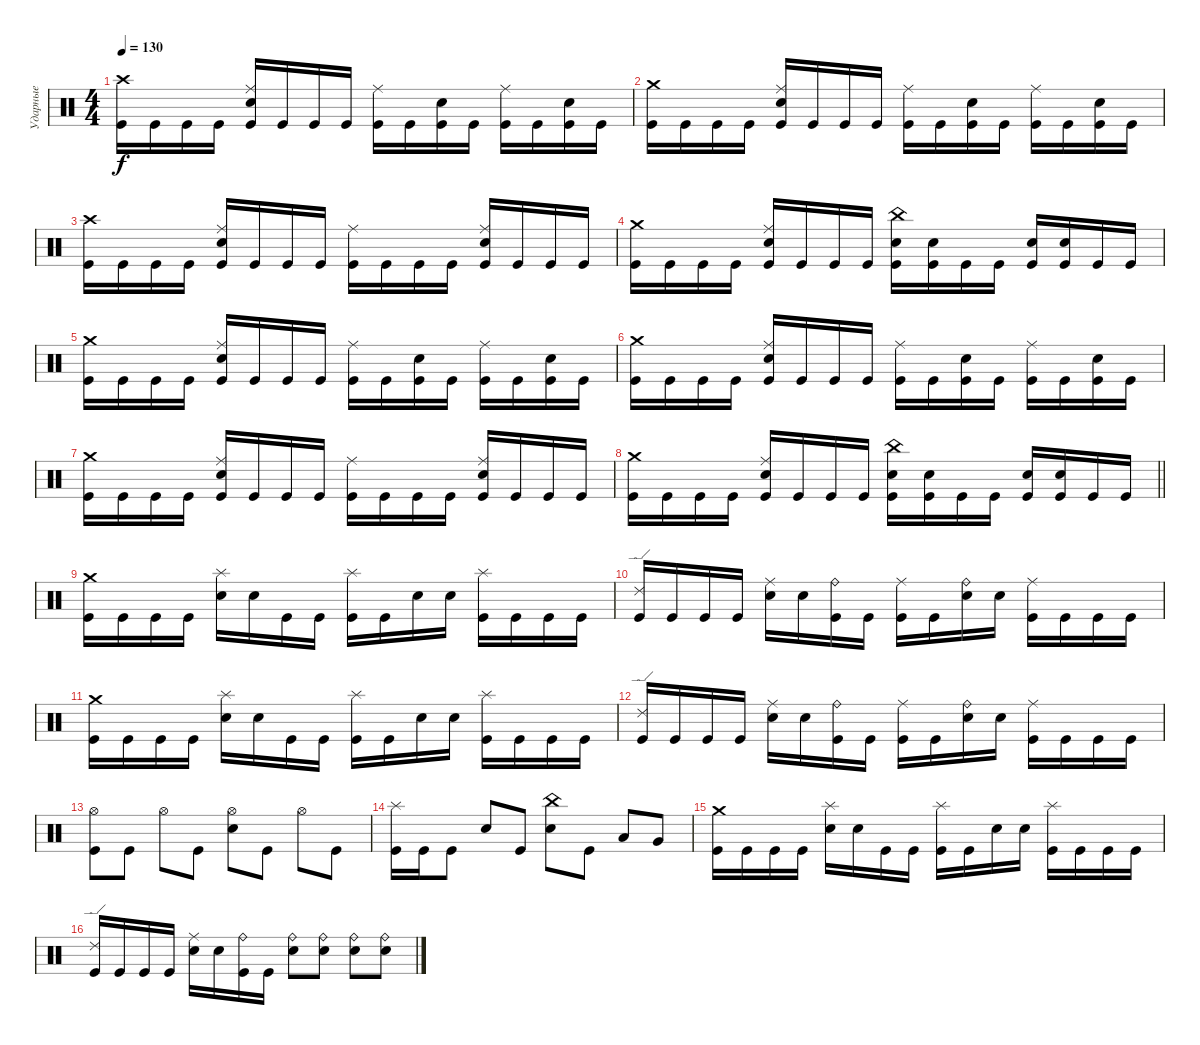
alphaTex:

\track ("Ударные" "Ударные") {instrument percussion}
\staff {score}
\articulation defaults
\ts (4 4)
\tempo 130
\clef neutral
\ks c
("Crash high (hit)" "Kick (hit)").16{dy f} "Kick (hit)".16 "Kick (hit)".16 "Kick (hit)".16 ("Ride (middle)" "Electric Snare (hit)" "Kick (hit)").16 "Kick (hit)".16 "Kick (hit)".16 "Kick (hit)".16 ("Ride (middle)" "Kick (hit)").16 "Kick (hit)".16 ("Electric Snare (hit)" "Kick (hit)").16 "Kick (hit)".16 ("Ride (middle)" "Kick (hit)").16 "Kick (hit)".16 ("Electric Snare (hit)" "Kick (hit)").16 "Kick (hit)".16 |
("Crash medium (hit)" "Kick (hit)").16 "Kick (hit)".16 "Kick (hit)".16 "Kick (hit)".16 ("Ride (middle)" "Electric Snare (hit)" "Kick (hit)").16 "Kick (hit)".16 "Kick (hit)".16 "Kick (hit)".16 ("Ride (middle)" "Kick (hit)").16 "Kick (hit)".16 ("Electric Snare (hit)" "Kick (hit)").16 "Kick (hit)".16 ("Ride (middle)" "Kick (hit)").16 "Kick (hit)".16 ("Electric Snare (hit)" "Kick (hit)").16 "Kick (hit)".16 |
("Crash high (hit)" "Kick (hit)").16 "Kick (hit)".16 "Kick (hit)".16 "Kick (hit)".16 ("Ride (middle)" "Electric Snare (hit)" "Kick (hit)").16 "Kick (hit)".16 "Kick (hit)".16 "Kick (hit)".16 ("Ride (middle)" "Kick (hit)").16 "Kick (hit)".16 "Kick (hit)".16 "Kick (hit)".16 ("Ride (middle)" "Electric Snare (hit)" "Kick (hit)").16 "Kick (hit)".16 "Kick (hit)".16 "Kick (hit)".16 |
("Crash medium (hit)" "Kick (hit)").16 "Kick (hit)".16 "Kick (hit)".16 "Kick (hit)".16 ("Ride (middle)" "Electric Snare (hit)" "Kick (hit)").16 "Kick (hit)".16 "Kick (hit)".16 "Kick (hit)".16 ("China (hit)" "Electric Snare (hit)" "Kick (hit)").16 ("Electric Snare (hit)" "Kick (hit)").16 "Kick (hit)".16 "Kick (hit)".16 ("Electric Snare (hit)" "Kick (hit)").16 ("Electric Snare (hit)" "Kick (hit)").16 "Kick (hit)".16 "Kick (hit)".16 |
("Crash medium (hit)" "Kick (hit)").16 "Kick (hit)".16 "Kick (hit)".16 "Kick (hit)".16 ("Ride (middle)" "Electric Snare (hit)" "Kick (hit)").16 "Kick (hit)".16 "Kick (hit)".16 "Kick (hit)".16 ("Ride (middle)" "Kick (hit)").16 "Kick (hit)".16 ("Electric Snare (hit)" "Kick (hit)").16 "Kick (hit)".16 ("Ride (middle)" "Kick (hit)").16 "Kick (hit)".16 ("Electric Snare (hit)" "Kick (hit)").16 "Kick (hit)".16 |
("Crash medium (hit)" "Kick (hit)").16 "Kick (hit)".16 "Kick (hit)".16 "Kick (hit)".16 ("Ride (middle)" "Electric Snare (hit)" "Kick (hit)").16 "Kick (hit)".16 "Kick (hit)".16 "Kick (hit)".16 ("Ride (middle)" "Kick (hit)").16 "Kick (hit)".16 ("Electric Snare (hit)" "Kick (hit)").16 "Kick (hit)".16 ("Ride (middle)" "Kick (hit)").16 "Kick (hit)".16 ("Electric Snare (hit)" "Kick (hit)").16 "Kick (hit)".16 |
("Crash medium (hit)" "Kick (hit)").16 "Kick (hit)".16 "Kick (hit)".16 "Kick (hit)".16 ("Ride (middle)" "Electric Snare (hit)" "Kick (hit)").16 "Kick (hit)".16 "Kick (hit)".16 "Kick (hit)".16 ("Ride (middle)" "Kick (hit)").16 "Kick (hit)".16 "Kick (hit)".16 "Kick (hit)".16 ("Ride (middle)" "Electric Snare (hit)" "Kick (hit)").16 "Kick (hit)".16 "Kick (hit)".16 "Kick (hit)".16 |
\barLineRight lightlight
("Crash medium (hit)" "Kick (hit)").16 "Kick (hit)".16 "Kick (hit)".16 "Kick (hit)".16 ("Ride (middle)" "Electric Snare (hit)" "Kick (hit)").16 "Kick (hit)".16 "Kick (hit)".16 "Kick (hit)".16 ("China (hit)" "Electric Snare (hit)" "Kick (hit)").16 ("Electric Snare (hit)" "Kick (hit)").16 "Kick (hit)".16 "Kick (hit)".16 ("Electric Snare (hit)" "Kick (hit)").16 ("Electric Snare (hit)" "Kick (hit)").16 "Kick (hit)".16 "Kick (hit)".16 |
\section ("" " ")
("Crash medium (hit)" "Kick (hit)").16 "Kick (hit)".16 "Kick (hit)".16 "Kick (hit)".16 ("Splash (hit)" "Electric Snare (hit)").16 "Electric Snare (hit)".16 "Kick (hit)".16 "Kick (hit)".16 ("Splash (hit)" "Kick (hit)").16 "Kick (hit)".16 "Electric Snare (hit)".16 "Electric Snare (hit)".16 ("Splash (hit)" "Kick (hit)").16 "Kick (hit)".16 "Kick (hit)".16 "Kick (hit)".16 |
("Ride (edge) 2" "Kick (hit)").16 "Kick (hit)".16 "Kick (hit)".16 "Kick (hit)".16 ("Ride (middle)" "Electric Snare (hit)").16 "Electric Snare (hit)".16 ("Ride (bell)" "Kick (hit)").16 "Kick (hit)".16 ("Ride (middle)" "Kick (hit)").16 "Kick (hit)".16 ("Ride (bell)" "Electric Snare (hit)").16 "Electric Snare (hit)".16 ("Ride (middle)" "Kick (hit)").16 "Kick (hit)".16 "Kick (hit)".16 "Kick (hit)".16 |
("Crash medium (hit)" "Kick (hit)").16 "Kick (hit)".16 "Kick (hit)".16 "Kick (hit)".16 ("Splash (hit)" "Electric Snare (hit)").16 "Electric Snare (hit)".16 "Kick (hit)".16 "Kick (hit)".16 ("Splash (hit)" "Kick (hit)").16 "Kick (hit)".16 "Electric Snare (hit)".16 "Electric Snare (hit)".16 ("Splash (hit)" "Kick (hit)").16 "Kick (hit)".16 "Kick (hit)".16 "Kick (hit)".16 |
("Ride (edge) 2" "Kick (hit)").16 "Kick (hit)".16 "Kick (hit)".16 "Kick (hit)".16 ("Ride (middle)" "Electric Snare (hit)").16 "Electric Snare (hit)".16 ("Ride (bell)" "Kick (hit)").16 "Kick (hit)".16 ("Ride (middle)" "Kick (hit)").16 "Kick (hit)".16 ("Ride (bell)" "Electric Snare (hit)").16 "Electric Snare (hit)".16 ("Ride (middle)" "Kick (hit)").16 "Kick (hit)".16 "Kick (hit)".16 "Kick (hit)".16 |
("Hi-Hat (open)" "Kick (hit)").8 "Kick (hit)".8 "Hi-Hat (open)".8 "Kick (hit)".8 ("Hi-Hat (open)" "Electric Snare (hit)").8 "Kick (hit)".8 "Hi-Hat (open)".8 "Kick (hit)".8 |
("Splash (hit)" "Kick (hit)").16 "Kick (hit)".16 "Kick (hit)".8 "Electric Snare (hit)".8 "Kick (hit)".8 ("China (hit)" "Electric Snare (hit)").8 "Kick (hit)".8 "Low Tom (hit)".8 "Very Low Tom (hit)".8 |
("Crash medium (hit)" "Kick (hit)").16 "Kick (hit)".16 "Kick (hit)".16 "Kick (hit)".16 ("Splash (hit)" "Electric Snare (hit)").16 "Electric Snare (hit)".16 "Kick (hit)".16 "Kick (hit)".16 ("Splash (hit)" "Kick (hit)").16 "Kick (hit)".16 "Electric Snare (hit)".16 "Electric Snare (hit)".16 ("Splash (hit)" "Kick (hit)").16 "Kick (hit)".16 "Kick (hit)".16 "Kick (hit)".16 |
("Ride (edge) 2" "Kick (hit)").16 "Kick (hit)".16 "Kick (hit)".16 "Kick (hit)".16 ("Ride (middle)" "Electric Snare (hit)").16 "Electric Snare (hit)".16 ("Ride (bell)" "Kick (hit)").16 "Kick (hit)".16 ("Ride (bell)" "Electric Snare (hit)").8 ("Ride (bell)" "Electric Snare (hit)").8 ("Ride (bell)" "Electric Snare (hit)").8 ("Ride (bell)" "Electric Snare (hit)").8
